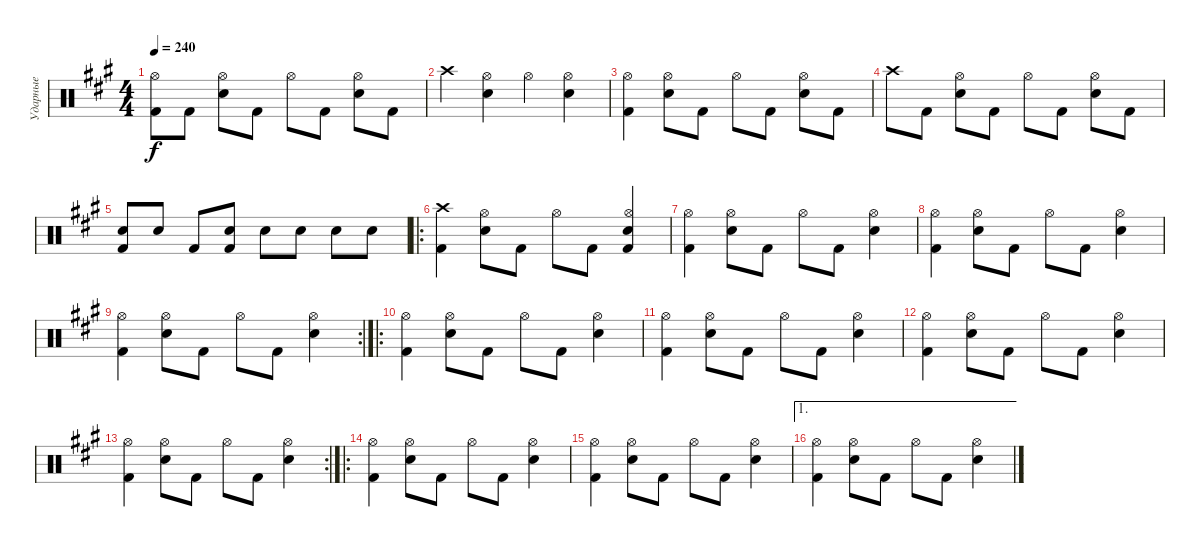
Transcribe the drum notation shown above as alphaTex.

\track ("Ударные" "Ударные") {instrument percussion}
\staff {score}
\articulation defaults
\ts (4 4)
\tempo 240
\clef neutral
\ks a
("Kick (hit) 2" "Hi-Hat (open)").8{dy f} "Kick (hit) 2".8 ("Snare (hit) 2" "Hi-Hat (open)").8 "Kick (hit) 2".8 "Hi-Hat (open)".8 "Kick (hit) 2".8 ("Snare (hit) 2" "Hi-Hat (open)").8 "Kick (hit) 2".8 |
"Crash high (hit)".4 ("Snare (hit) 2" "Hi-Hat (open)").4 "Hi-Hat (open)".4 ("Snare (hit) 2" "Hi-Hat (open)").4 |
("Kick (hit) 2" "Hi-Hat (open)").4 ("Snare (hit) 2" "Hi-Hat (open)").8 "Kick (hit) 2".8 "Hi-Hat (open)".8 "Kick (hit) 2".8 ("Snare (hit) 2" "Hi-Hat (open)").8 "Kick (hit) 2".8 |
"Crash high (hit)".8 "Kick (hit) 2".8 ("Snare (hit) 2" "Hi-Hat (open)").8 "Kick (hit) 2".8 "Hi-Hat (open)".8 "Kick (hit) 2".8 ("Snare (hit) 2" "Hi-Hat (open)").8 "Kick (hit) 2".8 |
("Kick (hit) 2" "Snare (hit) 2").8 "Snare (hit) 2".8 "Kick (hit) 2".8 ("Kick (hit) 2" "Snare (hit) 2").8 "Snare (hit) 2".8 "Snare (hit) 2".8 "Snare (hit) 2".8 "Snare (hit) 2".8 |
\ro
("Kick (hit) 2" "Crash high (hit)").4 ("Snare (hit) 2" "Hi-Hat (open)").8 "Kick (hit) 2".8 "Hi-Hat (open)".8 "Kick (hit) 2".8 ("Kick (hit) 2" "Snare (hit) 2" "Hi-Hat (open)").4 |
("Kick (hit) 2" "Hi-Hat (open)").4 ("Snare (hit) 2" "Hi-Hat (open)").8 "Kick (hit) 2".8 "Hi-Hat (open)".8 "Kick (hit) 2".8 ("Snare (hit) 2" "Hi-Hat (open)").4 |
("Kick (hit) 2" "Hi-Hat (open)").4 ("Snare (hit) 2" "Hi-Hat (open)").8 "Kick (hit) 2".8 "Hi-Hat (open)".8 "Kick (hit) 2".8 ("Snare (hit) 2" "Hi-Hat (open)").4 |
\rc 2
("Kick (hit) 2" "Hi-Hat (open)").4 ("Snare (hit) 2" "Hi-Hat (open)").8 "Kick (hit) 2".8 "Hi-Hat (open)".8 "Kick (hit) 2".8 ("Snare (hit) 2" "Hi-Hat (open)").4 |
\ro
("Kick (hit) 2" "Hi-Hat (open)").4 ("Snare (hit) 2" "Hi-Hat (open)").8 "Kick (hit) 2".8 "Hi-Hat (open)".8 "Kick (hit) 2".8 ("Snare (hit) 2" "Hi-Hat (open)").4 |
("Kick (hit) 2" "Hi-Hat (open)").4 ("Snare (hit) 2" "Hi-Hat (open)").8 "Kick (hit) 2".8 "Hi-Hat (open)".8 "Kick (hit) 2".8 ("Snare (hit) 2" "Hi-Hat (open)").4 |
("Kick (hit) 2" "Hi-Hat (open)").4 ("Snare (hit) 2" "Hi-Hat (open)").8 "Kick (hit) 2".8 "Hi-Hat (open)".8 "Kick (hit) 2".8 ("Snare (hit) 2" "Hi-Hat (open)").4 |
\rc 2
("Kick (hit) 2" "Hi-Hat (open)").4 ("Snare (hit) 2" "Hi-Hat (open)").8 "Kick (hit) 2".8 "Hi-Hat (open)".8 "Kick (hit) 2".8 ("Snare (hit) 2" "Hi-Hat (open)").4 |
\ro
("Kick (hit) 2" "Hi-Hat (open)").4 ("Snare (hit) 2" "Hi-Hat (open)").8 "Kick (hit) 2".8 "Hi-Hat (open)".8 "Kick (hit) 2".8 ("Snare (hit) 2" "Hi-Hat (open)").4 |
("Kick (hit) 2" "Hi-Hat (open)").4 ("Snare (hit) 2" "Hi-Hat (open)").8 "Kick (hit) 2".8 "Hi-Hat (open)".8 "Kick (hit) 2".8 ("Snare (hit) 2" "Hi-Hat (open)").4 |
\ae 1
("Kick (hit) 2" "Hi-Hat (open)").4 ("Snare (hit) 2" "Hi-Hat (open)").8 "Kick (hit) 2".8 "Hi-Hat (open)".8 "Kick (hit) 2".8 ("Snare (hit) 2" "Hi-Hat (open)").4
